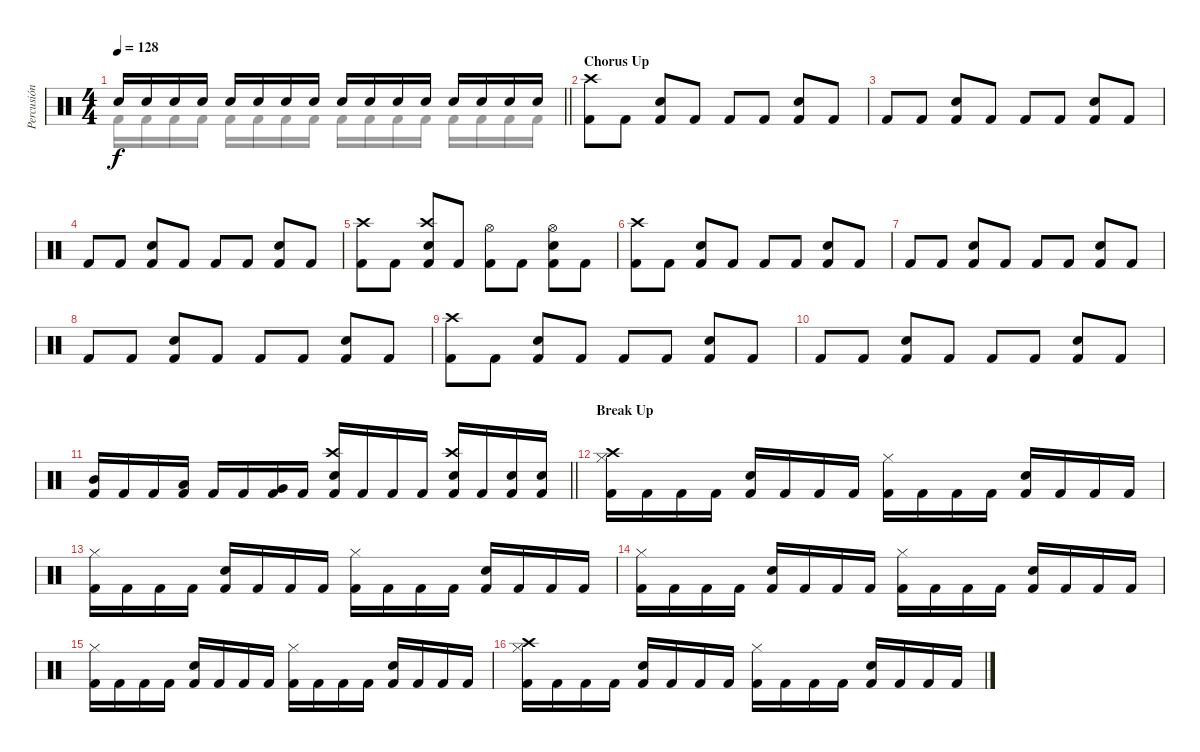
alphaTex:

\track ("Percusión" "Percusión") {instrument percussion}
\staff {score}
\articulation defaults
\voice
\ts (4 4)
\tempo 128
\clef neutral
\barLineRight lightlight
\ks c "Snare (hit) 2".16{dy f} "Snare (hit) 2".16 "Snare (hit) 2".16 "Snare (hit) 2".16 "Snare (hit) 2".16 "Snare (hit) 2".16 "Snare (hit) 2".16 "Snare (hit) 2".16 "Snare (hit) 2".16 "Snare (hit) 2".16 "Snare (hit) 2".16 "Snare (hit) 2".16 "Snare (hit) 2".16 "Snare (hit) 2".16 "Snare (hit) 2".16 "Snare (hit) 2".16
|
\section ("" "Chorus Up")
("Crash high (hit)" "Kick (hit) 2").8 "Kick (hit) 2".8 ("Snare (hit) 2" "Kick (hit) 2").8 "Kick (hit) 2".8 "Kick (hit) 2".8 "Kick (hit) 2".8 ("Snare (hit) 2" "Kick (hit) 2").8 "Kick (hit) 2".8 |
"Kick (hit) 2".8 "Kick (hit) 2".8 ("Snare (hit) 2" "Kick (hit) 2").8 "Kick (hit) 2".8 "Kick (hit) 2".8 "Kick (hit) 2".8 ("Snare (hit) 2" "Kick (hit) 2").8 "Kick (hit) 2".8 |
"Kick (hit) 2".8 "Kick (hit) 2".8 ("Snare (hit) 2" "Kick (hit) 2").8 "Kick (hit) 2".8 "Kick (hit) 2".8 "Kick (hit) 2".8 ("Snare (hit) 2" "Kick (hit) 2").8 "Kick (hit) 2".8 |
("Crash high (hit)" "Kick (hit) 2").8 "Kick (hit) 2".8 ("Crash high (hit)" "Snare (hit) 2" "Kick (hit) 2").8 "Kick (hit) 2".8 ("Hi-Hat (open)" "Kick (hit) 2").8 "Kick (hit) 2".8 ("Hi-Hat (open)" "Snare (hit) 2" "Kick (hit) 2").8 "Kick (hit) 2".8 |
("Crash high (hit)" "Kick (hit) 2").8 "Kick (hit) 2".8 ("Snare (hit) 2" "Kick (hit) 2").8 "Kick (hit) 2".8 "Kick (hit) 2".8 "Kick (hit) 2".8 ("Snare (hit) 2" "Kick (hit) 2").8 "Kick (hit) 2".8 |
"Kick (hit) 2".8 "Kick (hit) 2".8 ("Snare (hit) 2" "Kick (hit) 2").8 "Kick (hit) 2".8 "Kick (hit) 2".8 "Kick (hit) 2".8 ("Snare (hit) 2" "Kick (hit) 2").8 "Kick (hit) 2".8 |
"Kick (hit) 2".8 "Kick (hit) 2".8 ("Snare (hit) 2" "Kick (hit) 2").8 "Kick (hit) 2".8 "Kick (hit) 2".8 "Kick (hit) 2".8 ("Snare (hit) 2" "Kick (hit) 2").8 "Kick (hit) 2".8 |
("Crash high (hit)" "Kick (hit) 2").8 "Kick (hit) 2".8 ("Snare (hit) 2" "Kick (hit) 2").8 "Kick (hit) 2".8 "Kick (hit) 2".8 "Kick (hit) 2".8 ("Snare (hit) 2" "Kick (hit) 2").8 "Kick (hit) 2".8 |
"Kick (hit) 2".8 "Kick (hit) 2".8 ("Snare (hit) 2" "Kick (hit) 2").8 "Kick (hit) 2".8 "Kick (hit) 2".8 "Kick (hit) 2".8 ("Snare (hit) 2" "Kick (hit) 2").8 "Kick (hit) 2".8 |
\barLineRight lightlight
("Mid Tom (hit)" "Kick (hit) 2").16 "Kick (hit) 2".16 "Kick (hit) 2".16 ("Low Tom (hit)" "Kick (hit) 2").16 "Kick (hit) 2".16 "Kick (hit) 2".16 ("Very Low Tom (hit)" "Kick (hit) 2").16 "Kick (hit) 2".16 ("Crash high (hit)" "Snare (hit) 2" "Kick (hit) 2").16 "Kick (hit) 2".16 "Kick (hit) 2".16 "Kick (hit) 2".16 ("Crash high (hit)" "Snare (hit) 2" "Kick (hit) 2").16 "Kick (hit) 2".16 ("Snare (hit) 2" "Kick (hit) 2").16 ("Snare (hit) 2" "Kick (hit) 2").16 |
\section ("" "Break Up")
("Crash high (hit)" "Hi-Hat (closed)" "Kick (hit) 2").16 "Kick (hit) 2".16 "Kick (hit) 2".16 "Kick (hit) 2".16 ("Snare (hit) 2" "Kick (hit) 2").16 "Kick (hit) 2".16 "Kick (hit) 2".16 "Kick (hit) 2".16 ("Hi-Hat (closed)" "Kick (hit) 2").16 "Kick (hit) 2".16 "Kick (hit) 2".16 "Kick (hit) 2".16 ("Snare (hit) 2" "Kick (hit) 2").16 "Kick (hit) 2".16 "Kick (hit) 2".16 "Kick (hit) 2".16 |
("Hi-Hat (closed)" "Kick (hit) 2").16 "Kick (hit) 2".16 "Kick (hit) 2".16 "Kick (hit) 2".16 ("Snare (hit) 2" "Kick (hit) 2").16 "Kick (hit) 2".16 "Kick (hit) 2".16 "Kick (hit) 2".16 ("Hi-Hat (closed)" "Kick (hit) 2").16 "Kick (hit) 2".16 "Kick (hit) 2".16 "Kick (hit) 2".16 ("Snare (hit) 2" "Kick (hit) 2").16 "Kick (hit) 2".16 "Kick (hit) 2".16 "Kick (hit) 2".16 |
("Hi-Hat (closed)" "Kick (hit) 2").16 "Kick (hit) 2".16 "Kick (hit) 2".16 "Kick (hit) 2".16 ("Snare (hit) 2" "Kick (hit) 2").16 "Kick (hit) 2".16 "Kick (hit) 2".16 "Kick (hit) 2".16 ("Hi-Hat (closed)" "Kick (hit) 2").16 "Kick (hit) 2".16 "Kick (hit) 2".16 "Kick (hit) 2".16 ("Snare (hit) 2" "Kick (hit) 2").16 "Kick (hit) 2".16 "Kick (hit) 2".16 "Kick (hit) 2".16 |
("Hi-Hat (closed)" "Kick (hit) 2").16 "Kick (hit) 2".16 "Kick (hit) 2".16 "Kick (hit) 2".16 ("Snare (hit) 2" "Kick (hit) 2").16 "Kick (hit) 2".16 "Kick (hit) 2".16 "Kick (hit) 2".16 ("Hi-Hat (closed)" "Kick (hit) 2").16 "Kick (hit) 2".16 "Kick (hit) 2".16 "Kick (hit) 2".16 ("Snare (hit) 2" "Kick (hit) 2").16 "Kick (hit) 2".16 "Kick (hit) 2".16 "Kick (hit) 2".16 |
("Crash high (hit)" "Hi-Hat (closed)" "Kick (hit) 2").16 "Kick (hit) 2".16 "Kick (hit) 2".16 "Kick (hit) 2".16 ("Snare (hit) 2" "Kick (hit) 2").16 "Kick (hit) 2".16 "Kick (hit) 2".16 "Kick (hit) 2".16 ("Hi-Hat (closed)" "Kick (hit) 2").16 "Kick (hit) 2".16 "Kick (hit) 2".16 "Kick (hit) 2".16 ("Snare (hit) 2" "Kick (hit) 2").16 "Kick (hit) 2".16 "Kick (hit) 2".16 "Kick (hit) 2".16
\voice
\clef neutral
\ottava regular
\simile none
\barLineRight lightlight
\ks c "Kick (hit) 2".16{dy f} "Kick (hit) 2".16 "Kick (hit) 2".16 "Kick (hit) 2".16 "Kick (hit) 2".16 "Kick (hit) 2".16 "Kick (hit) 2".16 "Kick (hit) 2".16 "Kick (hit) 2".16 "Kick (hit) 2".16 "Kick (hit) 2".16 "Kick (hit) 2".16 "Kick (hit) 2".16 "Kick (hit) 2".16 "Kick (hit) 2".16 "Kick (hit) 2".16
|
|
|
|
|
|
|
|
|
|
\barLineRight lightlight
|
|
|
|
|
